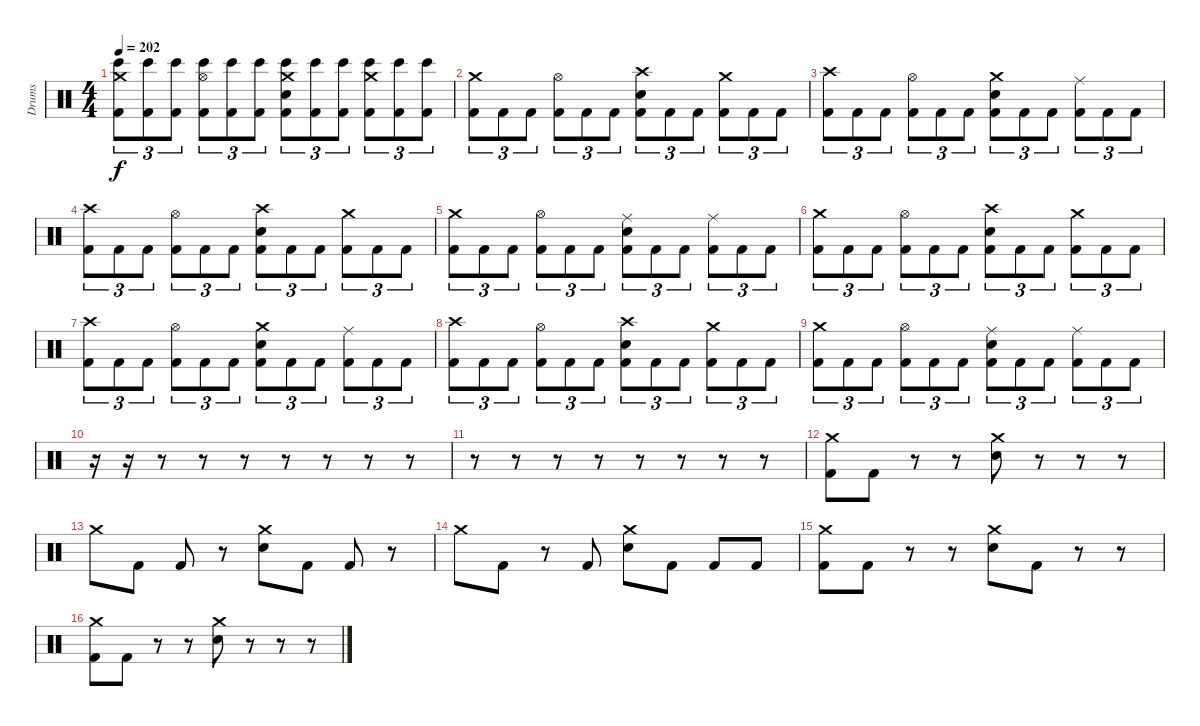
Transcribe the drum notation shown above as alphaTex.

\track ("Drums" "Drums") {instrument percussion}
\staff {score}
\articulation defaults
\ts (4 4)
\tempo 202
\clef neutral
\ks c
("Crash medium (hit)" "Bongo High (hit)" "Kick (hit) 2").8{tu (3 2) dy f} ("Bongo High (hit)" "Kick (hit) 2").8{tu (3 2)} ("Bongo High (hit)" "Kick (hit) 2").8{tu (3 2)} ("Bongo High (hit)" "Hi-Hat (open)" "Kick (hit) 2").8{tu (3 2)} ("Bongo High (hit)" "Kick (hit) 2").8{tu (3 2)} ("Bongo High (hit)" "Kick (hit) 2").8{tu (3 2)} ("Crash medium (hit)" "Bongo High (hit)" "Electric Snare (hit)" "Kick (hit) 2").8{tu (3 2)} ("Bongo High (hit)" "Kick (hit) 2").8{tu (3 2)} ("Bongo High (hit)" "Kick (hit) 2").8{tu (3 2)} ("Crash medium (hit)" "Bongo High (hit)" "Kick (hit) 2").8{tu (3 2)} ("Bongo High (hit)" "Kick (hit) 2").8{tu (3 2)} ("Bongo High (hit)" "Kick (hit) 2").8{tu (3 2)} |
("Crash medium (hit)" "Kick (hit) 2").8{tu (3 2)} "Kick (hit) 2".8{tu (3 2)} "Kick (hit) 2".8{tu (3 2)} ("Hi-Hat (open)" "Kick (hit) 2").8{tu (3 2)} "Kick (hit) 2".8{tu (3 2)} "Kick (hit) 2".8{tu (3 2)} ("Crash high (hit)" "Electric Snare (hit)" "Kick (hit) 2").8{tu (3 2)} "Kick (hit) 2".8{tu (3 2)} "Kick (hit) 2".8{tu (3 2)} ("Crash medium (hit)" "Kick (hit) 2").8{tu (3 2)} "Kick (hit) 2".8{tu (3 2)} "Kick (hit) 2".8{tu (3 2)} |
("Crash high (hit)" "Kick (hit) 2").8{tu (3 2)} "Kick (hit) 2".8{tu (3 2)} "Kick (hit) 2".8{tu (3 2)} ("Hi-Hat (open)" "Kick (hit) 2").8{tu (3 2)} "Kick (hit) 2".8{tu (3 2)} "Kick (hit) 2".8{tu (3 2)} ("Crash medium (hit)" "Electric Snare (hit)" "Kick (hit) 2").8{tu (3 2)} "Kick (hit) 2".8{tu (3 2)} "Kick (hit) 2".8{tu (3 2)} ("Ride (middle)" "Kick (hit) 2").8{tu (3 2)} "Kick (hit) 2".8{tu (3 2)} "Kick (hit) 2".8{tu (3 2)} |
("Crash high (hit)" "Kick (hit) 2").8{tu (3 2)} "Kick (hit) 2".8{tu (3 2)} "Kick (hit) 2".8{tu (3 2)} ("Hi-Hat (open)" "Kick (hit) 2").8{tu (3 2)} "Kick (hit) 2".8{tu (3 2)} "Kick (hit) 2".8{tu (3 2)} ("Crash high (hit)" "Electric Snare (hit)" "Kick (hit) 2").8{tu (3 2)} "Kick (hit) 2".8{tu (3 2)} "Kick (hit) 2".8{tu (3 2)} ("Crash medium (hit)" "Kick (hit) 2").8{tu (3 2)} "Kick (hit) 2".8{tu (3 2)} "Kick (hit) 2".8{tu (3 2)} |
("Crash medium (hit)" "Kick (hit) 2").8{tu (3 2)} "Kick (hit) 2".8{tu (3 2)} "Kick (hit) 2".8{tu (3 2)} ("Hi-Hat (open)" "Kick (hit) 2").8{tu (3 2)} "Kick (hit) 2".8{tu (3 2)} "Kick (hit) 2".8{tu (3 2)} ("Ride (middle)" "Electric Snare (hit)" "Kick (hit) 2").8{tu (3 2)} "Kick (hit) 2".8{tu (3 2)} "Kick (hit) 2".8{tu (3 2)} ("Ride (middle)" "Kick (hit) 2").8{tu (3 2)} "Kick (hit) 2".8{tu (3 2)} "Kick (hit) 2".8{tu (3 2)} |
("Crash medium (hit)" "Kick (hit) 2").8{tu (3 2)} "Kick (hit) 2".8{tu (3 2)} "Kick (hit) 2".8{tu (3 2)} ("Hi-Hat (open)" "Kick (hit) 2").8{tu (3 2)} "Kick (hit) 2".8{tu (3 2)} "Kick (hit) 2".8{tu (3 2)} ("Crash high (hit)" "Electric Snare (hit)" "Kick (hit) 2").8{tu (3 2)} "Kick (hit) 2".8{tu (3 2)} "Kick (hit) 2".8{tu (3 2)} ("Crash medium (hit)" "Kick (hit) 2").8{tu (3 2)} "Kick (hit) 2".8{tu (3 2)} "Kick (hit) 2".8{tu (3 2)} |
("Crash high (hit)" "Kick (hit) 2").8{tu (3 2)} "Kick (hit) 2".8{tu (3 2)} "Kick (hit) 2".8{tu (3 2)} ("Hi-Hat (open)" "Kick (hit) 2").8{tu (3 2)} "Kick (hit) 2".8{tu (3 2)} "Kick (hit) 2".8{tu (3 2)} ("Crash medium (hit)" "Electric Snare (hit)" "Kick (hit) 2").8{tu (3 2)} "Kick (hit) 2".8{tu (3 2)} "Kick (hit) 2".8{tu (3 2)} ("Ride (middle)" "Kick (hit) 2").8{tu (3 2)} "Kick (hit) 2".8{tu (3 2)} "Kick (hit) 2".8{tu (3 2)} |
("Crash high (hit)" "Kick (hit) 2").8{tu (3 2)} "Kick (hit) 2".8{tu (3 2)} "Kick (hit) 2".8{tu (3 2)} ("Hi-Hat (open)" "Kick (hit) 2").8{tu (3 2)} "Kick (hit) 2".8{tu (3 2)} "Kick (hit) 2".8{tu (3 2)} ("Crash high (hit)" "Electric Snare (hit)" "Kick (hit) 2").8{tu (3 2)} "Kick (hit) 2".8{tu (3 2)} "Kick (hit) 2".8{tu (3 2)} ("Crash medium (hit)" "Kick (hit) 2").8{tu (3 2)} "Kick (hit) 2".8{tu (3 2)} "Kick (hit) 2".8{tu (3 2)} |
("Crash medium (hit)" "Kick (hit) 2").8{tu (3 2)} "Kick (hit) 2".8{tu (3 2)} "Kick (hit) 2".8{tu (3 2)} ("Hi-Hat (open)" "Kick (hit) 2").8{tu (3 2)} "Kick (hit) 2".8{tu (3 2)} "Kick (hit) 2".8{tu (3 2)} ("Ride (middle)" "Electric Snare (hit)" "Kick (hit) 2").8{tu (3 2)} "Kick (hit) 2".8{tu (3 2)} "Kick (hit) 2".8{tu (3 2)} ("Ride (middle)" "Kick (hit) 2").8{tu (3 2)} "Kick (hit) 2".8{tu (3 2)} "Kick (hit) 2".8{tu (3 2)} |
r.16 r.16 r.8 r.8 r.8 r.8 r.8 r.8 r.8 |
r.8 r.8 r.8 r.8 r.8 r.8 r.8 r.8 |
("Crash medium (hit)" "Kick (hit) 2").8 "Kick (hit) 2".8 r.8 r.8 ("Crash medium (hit)" "Electric Snare (hit)").8 r.8 r.8 r.8 |
"Crash medium (hit)".8 "Kick (hit) 2".8 "Kick (hit) 2".8 r.8 ("Crash medium (hit)" "Electric Snare (hit)").8 "Kick (hit) 2".8 "Kick (hit) 2".8 r.8 |
"Crash medium (hit)".8 "Kick (hit) 2".8 r.8 "Kick (hit) 2".8 ("Crash medium (hit)" "Electric Snare (hit)").8 "Kick (hit) 2".8 "Kick (hit) 2".8 "Kick (hit) 2".8 |
("Crash medium (hit)" "Kick (hit) 2").8 "Kick (hit) 2".8 r.8 r.8 ("Crash medium (hit)" "Electric Snare (hit)").8 "Kick (hit) 2".8 r.8 r.8 |
("Crash medium (hit)" "Kick (hit) 2").8 "Kick (hit) 2".8 r.8 r.8 ("Crash medium (hit)" "Electric Snare (hit)").8 r.8 r.8 r.8
